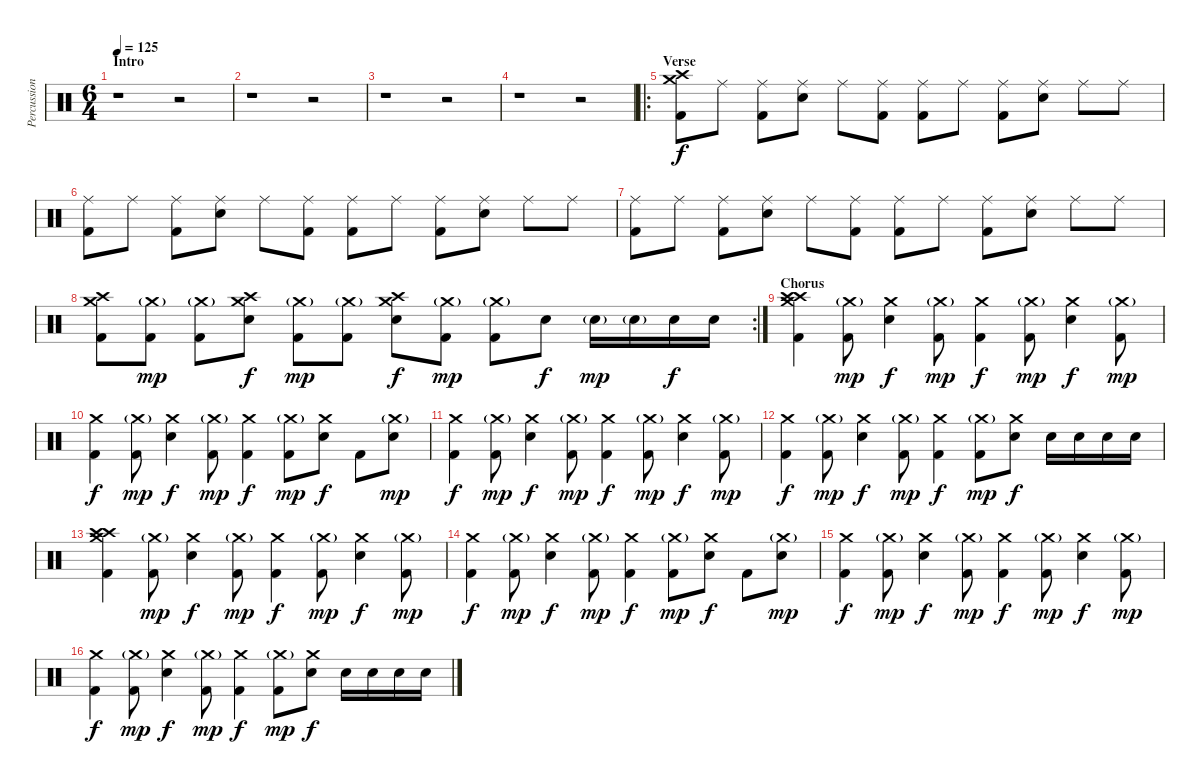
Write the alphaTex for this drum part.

\track ("Percussion" "Percussion") {instrument percussion}
\staff {score}
\articulation defaults
\ts (6 4)
\section ("" "Intro")
\tempo 125
\clef neutral
\ks c
r.1{dy f} r.2 |
r.1 r.2 |
r.1 r.2 |
r.1 r.2 |
\ro
\section ("" "Verse")
("Crash high (hit)" "Crash medium (hit)" "Kick (hit) 2").8 "Ride (middle)".8 ("Ride (middle)" "Kick (hit) 2").8 ("Ride (middle)" "Electric Snare (hit)").8 "Ride (middle)".8 ("Ride (middle)" "Kick (hit) 2").8 ("Ride (middle)" "Kick (hit) 2").8 "Ride (middle)".8 ("Ride (middle)" "Kick (hit) 2").8 ("Ride (middle)" "Electric Snare (hit)").8 "Ride (middle)".8 "Ride (middle)".8 |
("Ride (middle)" "Kick (hit) 2").8 "Ride (middle)".8 ("Ride (middle)" "Kick (hit) 2").8 ("Ride (middle)" "Electric Snare (hit)").8 "Ride (middle)".8 ("Ride (middle)" "Kick (hit) 2").8 ("Ride (middle)" "Kick (hit) 2").8 "Ride (middle)".8 ("Ride (middle)" "Kick (hit) 2").8 ("Ride (middle)" "Electric Snare (hit)").8 "Ride (middle)".8 "Ride (middle)".8 |
("Ride (middle)" "Kick (hit) 2").8 "Ride (middle)".8 ("Ride (middle)" "Kick (hit) 2").8 ("Ride (middle)" "Electric Snare (hit)").8 "Ride (middle)".8 ("Ride (middle)" "Kick (hit) 2").8 ("Ride (middle)" "Kick (hit) 2").8 "Ride (middle)".8 ("Ride (middle)" "Kick (hit) 2").8 ("Ride (middle)" "Electric Snare (hit)").8 "Ride (middle)".8 "Ride (middle)".8 |
\rc 2
("Crash high (hit)" "Crash medium (hit)" "Kick (hit) 2").8 ("Crash medium (hit)"{g} "Kick (hit) 2").8{dy mp} ("Crash medium (hit)"{g} "Kick (hit) 2").8 ("Crash medium (hit)" "Crash high (hit)" "Electric Snare (hit)").8{dy f} ("Crash medium (hit)"{g} "Kick (hit) 2").8{dy mp} ("Crash medium (hit)"{g} "Kick (hit) 2").8 ("Crash high (hit)" "Crash medium (hit)" "Electric Snare (hit)").8{dy f} ("Crash medium (hit)"{g} "Kick (hit) 2").8{dy mp} ("Crash medium (hit)"{g} "Kick (hit) 2").8 "Electric Snare (hit)".8{dy f} "Electric Snare (hit)"{g}.16{dy mp} "Electric Snare (hit)"{g}.16 "Electric Snare (hit)".16{dy f} "Electric Snare (hit)".16 |
\section ("" "Chorus")
("Crash high (hit)" "Crash high (hit)" "Crash medium (hit)" "Kick (hit) 2").4 ("Crash medium (hit)"{g} "Kick (hit) 2").8{dy mp} ("Crash medium (hit)" "Electric Snare (hit)").4{dy f} ("Crash medium (hit)"{g} "Kick (hit) 2").8{dy mp} ("Crash medium (hit)" "Kick (hit) 2").4{dy f} ("Crash medium (hit)"{g} "Kick (hit) 2").8{dy mp} ("Crash medium (hit)" "Electric Snare (hit)").4{dy f} ("Crash medium (hit)"{g} "Kick (hit) 2").8{dy mp} |
("Crash medium (hit)" "Kick (hit) 2").4{dy f} ("Crash medium (hit)"{g} "Kick (hit) 2").8{dy mp} ("Crash medium (hit)" "Electric Snare (hit)").4{dy f} ("Crash medium (hit)"{g} "Kick (hit) 2").8{dy mp} ("Crash medium (hit)" "Kick (hit) 2").4{dy f} ("Crash medium (hit)"{g} "Kick (hit) 2").8{dy mp} ("Crash medium (hit)" "Electric Snare (hit)").8{dy f} "Kick (hit) 2".8 ("Crash medium (hit)"{g} "Electric Snare (hit)").8{dy mp} |
("Crash medium (hit)" "Kick (hit) 2").4{dy f} ("Crash medium (hit)"{g} "Kick (hit) 2").8{dy mp} ("Crash medium (hit)" "Electric Snare (hit)").4{dy f} ("Crash medium (hit)"{g} "Kick (hit) 2").8{dy mp} ("Crash medium (hit)" "Kick (hit) 2").4{dy f} ("Crash medium (hit)"{g} "Kick (hit) 2").8{dy mp} ("Crash medium (hit)" "Electric Snare (hit)").4{dy f} ("Crash medium (hit)"{g} "Kick (hit) 2").8{dy mp} |
("Crash medium (hit)" "Kick (hit) 2").4{dy f} ("Crash medium (hit)"{g} "Kick (hit) 2").8{dy mp} ("Crash medium (hit)" "Electric Snare (hit)").4{dy f} ("Crash medium (hit)"{g} "Kick (hit) 2").8{dy mp} ("Crash medium (hit)" "Kick (hit) 2").4{dy f} ("Crash medium (hit)"{g} "Kick (hit) 2").8{dy mp} ("Crash medium (hit)" "Electric Snare (hit)").8{dy f} "Electric Snare (hit)".16 "Electric Snare (hit)".16 "Electric Snare (hit)".16 "Electric Snare (hit)".16 |
("Crash high (hit)" "Crash high (hit)" "Crash medium (hit)" "Kick (hit) 2").4 ("Crash medium (hit)"{g} "Kick (hit) 2").8{dy mp} ("Crash medium (hit)" "Electric Snare (hit)").4{dy f} ("Crash medium (hit)"{g} "Kick (hit) 2").8{dy mp} ("Crash medium (hit)" "Kick (hit) 2").4{dy f} ("Crash medium (hit)"{g} "Kick (hit) 2").8{dy mp} ("Crash medium (hit)" "Electric Snare (hit)").4{dy f} ("Crash medium (hit)"{g} "Kick (hit) 2").8{dy mp} |
("Crash medium (hit)" "Kick (hit) 2").4{dy f} ("Crash medium (hit)"{g} "Kick (hit) 2").8{dy mp} ("Crash medium (hit)" "Electric Snare (hit)").4{dy f} ("Crash medium (hit)"{g} "Kick (hit) 2").8{dy mp} ("Crash medium (hit)" "Kick (hit) 2").4{dy f} ("Crash medium (hit)"{g} "Kick (hit) 2").8{dy mp} ("Crash medium (hit)" "Electric Snare (hit)").8{dy f} "Kick (hit) 2".8 ("Crash medium (hit)"{g} "Electric Snare (hit)").8{dy mp} |
("Crash medium (hit)" "Kick (hit) 2").4{dy f} ("Crash medium (hit)"{g} "Kick (hit) 2").8{dy mp} ("Crash medium (hit)" "Electric Snare (hit)").4{dy f} ("Crash medium (hit)"{g} "Kick (hit) 2").8{dy mp} ("Crash medium (hit)" "Kick (hit) 2").4{dy f} ("Crash medium (hit)"{g} "Kick (hit) 2").8{dy mp} ("Crash medium (hit)" "Electric Snare (hit)").4{dy f} ("Crash medium (hit)"{g} "Kick (hit) 2").8{dy mp} |
("Crash medium (hit)" "Kick (hit) 2").4{dy f} ("Crash medium (hit)"{g} "Kick (hit) 2").8{dy mp} ("Crash medium (hit)" "Electric Snare (hit)").4{dy f} ("Crash medium (hit)"{g} "Kick (hit) 2").8{dy mp} ("Crash medium (hit)" "Kick (hit) 2").4{dy f} ("Crash medium (hit)"{g} "Kick (hit) 2").8{dy mp} ("Crash medium (hit)" "Electric Snare (hit)").8{dy f} "Electric Snare (hit)".16 "Electric Snare (hit)".16 "Electric Snare (hit)".16 "Electric Snare (hit)".16
